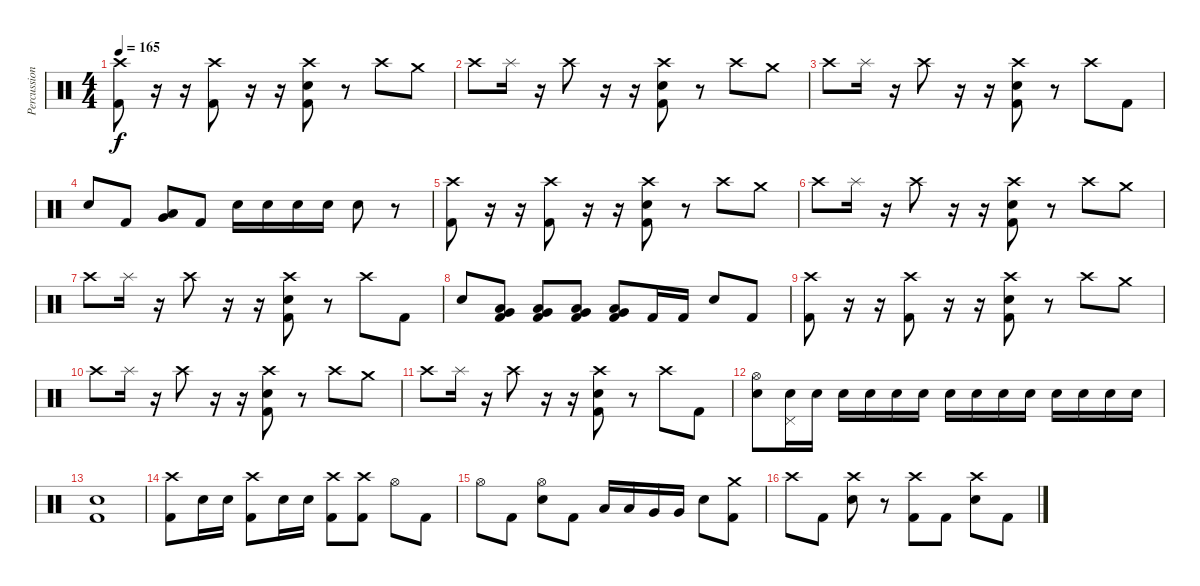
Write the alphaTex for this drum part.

\track ("Percussion" "Percussion") {instrument percussion}
\staff {score}
\articulation defaults
\ts (4 4)
\tempo 165
\clef neutral
\ks c
("Crash high (hit)" "Kick (hit) 2").8{dy f} r.16 r.16 ("Crash high (hit)" "Kick (hit) 2").8 r.16 r.16 ("Crash high (hit)" "Electric Snare (hit)" "Kick (hit) 2").8 r.8 "Crash high (hit)".8 "Crash medium (hit)".8 |
"Crash high (hit)".8 "Splash (hit)".16 r.16 "Crash high (hit)".8 r.16 r.16 ("Crash high (hit)" "Electric Snare (hit)" "Kick (hit) 2").8 r.8 "Crash high (hit)".8 "Crash medium (hit)".8 |
"Crash high (hit)".8 "Splash (hit)".16 r.16 "Crash high (hit)".8 r.16 r.16 ("Crash high (hit)" "Electric Snare (hit)" "Kick (hit) 2").8 r.8 "Crash high (hit)".8 "Kick (hit) 2".8 |
"Electric Snare (hit)".8 "Kick (hit) 2".8 ("Low Floor Tom (hit)" "Very Low Tom (hit)").8 "Kick (hit) 2".8 "Electric Snare (hit)".16 "Electric Snare (hit)".16 "Electric Snare (hit)".16 "Electric Snare (hit)".16 "Electric Snare (hit)".8 r.8 |
("Crash high (hit)" "Kick (hit) 2").8 r.16 r.16 ("Crash high (hit)" "Kick (hit) 2").8 r.16 r.16 ("Crash high (hit)" "Electric Snare (hit)" "Kick (hit) 2").8 r.8 "Crash high (hit)".8 "Crash medium (hit)".8 |
"Crash high (hit)".8 "Splash (hit)".16 r.16 "Crash high (hit)".8 r.16 r.16 ("Crash high (hit)" "Electric Snare (hit)" "Kick (hit) 2").8 r.8 "Crash high (hit)".8 "Crash medium (hit)".8 |
"Crash high (hit)".8 "Splash (hit)".16 r.16 "Crash high (hit)".8 r.16 r.16 ("Crash high (hit)" "Electric Snare (hit)" "Kick (hit) 2").8 r.8 "Crash high (hit)".8 "Kick (hit) 2".8 |
"Electric Snare (hit)".8 ("Low Floor Tom (hit)" "Very Low Tom (hit)" "Kick (hit) 2").8 ("Low Floor Tom (hit)" "Very Low Tom (hit)" "Kick (hit) 2").8 ("Low Floor Tom (hit)" "Very Low Tom (hit)" "Kick (hit) 2").8 ("Low Floor Tom (hit)" "Very Low Tom (hit)" "Kick (hit) 2").8 "Kick (hit) 2".16 "Kick (hit) 2".16 "Electric Snare (hit)".8 "Kick (hit) 2".8 |
("Crash high (hit)" "Kick (hit) 2").8 r.16 r.16 ("Crash high (hit)" "Kick (hit) 2").8 r.16 r.16 ("Crash high (hit)" "Electric Snare (hit)" "Kick (hit) 2").8 r.8 "Crash high (hit)".8 "Crash medium (hit)".8 |
"Crash high (hit)".8 "Splash (hit)".16 r.16 "Crash high (hit)".8 r.16 r.16 ("Crash high (hit)" "Electric Snare (hit)" "Kick (hit) 2").8 r.8 "Crash high (hit)".8 "Crash medium (hit)".8 |
"Crash high (hit)".8 "Splash (hit)".16 r.16 "Crash high (hit)".8 r.16 r.16 ("Crash high (hit)" "Electric Snare (hit)" "Kick (hit) 2").8 r.8 "Crash high (hit)".8 "Kick (hit) 2".8 |
("Hi-Hat (open)" "Electric Snare (hit)").8 ("Pedal Hi-Hat (hit)" "Electric Snare (hit)").16 "Electric Snare (hit)".16 "Electric Snare (hit)".16 "Electric Snare (hit)".16 "Electric Snare (hit)".16 "Electric Snare (hit)".16 "Electric Snare (hit)".16 "Electric Snare (hit)".16 "Electric Snare (hit)".16 "Electric Snare (hit)".16 "Electric Snare (hit)".16 "Electric Snare (hit)".16 "Electric Snare (hit)".16 "Electric Snare (hit)".16 |
("Electric Snare (hit)" "Kick (hit) 2").1 |
("Crash high (hit)" "Kick (hit) 2").8 "Electric Snare (hit)".16 "Electric Snare (hit)".16 ("Crash high (hit)" "Kick (hit) 2").8 "Electric Snare (hit)".16 "Electric Snare (hit)".16 ("Crash high (hit)" "Kick (hit) 2").8 ("Crash high (hit)" "Kick (hit) 2").8 "Hi-Hat (open)".8 "Kick (hit) 2".8 |
"Hi-Hat (open)".8 "Kick (hit) 2".8 ("Hi-Hat (open)" "Electric Snare (hit)").8 "Kick (hit) 2".8 "Low Tom (hit)".16 "Low Tom (hit)".16 "Very Low Tom (hit)".16 "Very Low Tom (hit)".16 "Electric Snare (hit)".8 ("Crash medium (hit)" "Kick (hit) 2").8 |
"Crash high (hit)".8 "Kick (hit) 2".8 ("Crash high (hit)" "Electric Snare (hit)").8 r.8 ("Crash high (hit)" "Kick (hit) 2").8 "Kick (hit) 2".8 ("Crash high (hit)" "Electric Snare (hit)").8 "Kick (hit) 2".8
